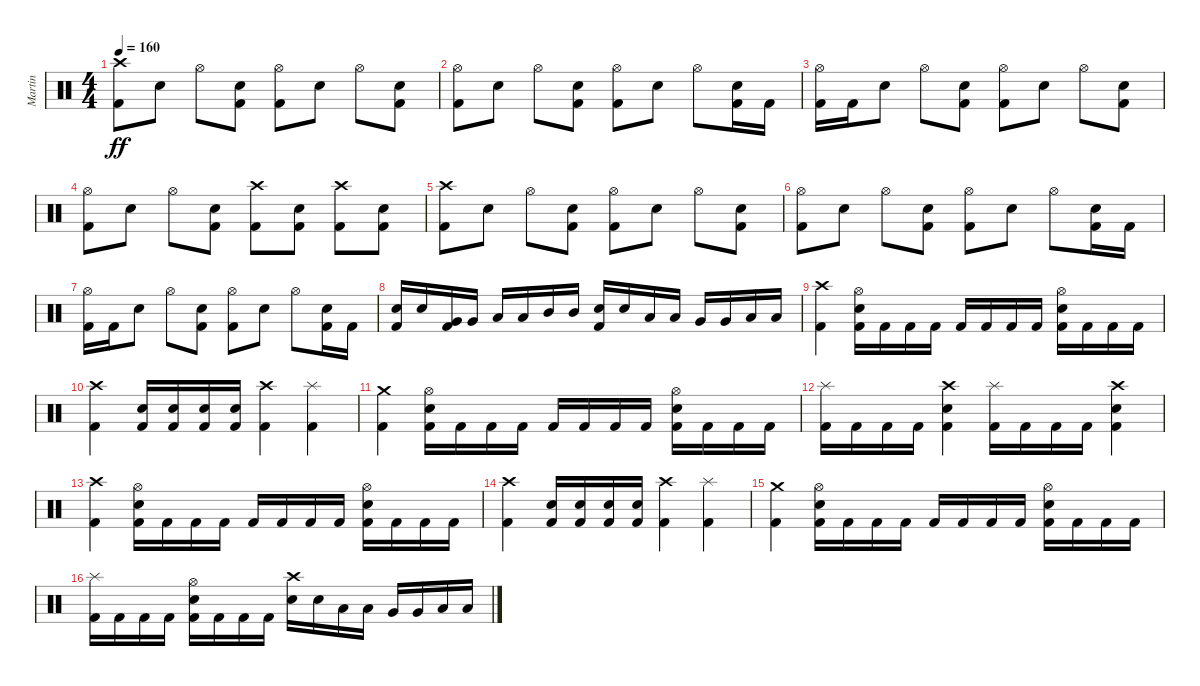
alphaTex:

\track ("Martin" "Martin") {instrument percussion}
\staff {score}
\articulation defaults
\ts (4 4)
\tempo 160
\clef neutral
\ks c
("Crash high (hit)" "Kick (hit) 2").8{dy ff} "Electric Snare (hit)".8 "Hi-Hat (open)".8 ("Electric Snare (hit)" "Kick (hit) 2").8 ("Hi-Hat (open)" "Kick (hit) 2").8 "Electric Snare (hit)".8 "Hi-Hat (open)".8 ("Electric Snare (hit)" "Kick (hit) 2").8 |
("Hi-Hat (open)" "Kick (hit) 2").8 "Electric Snare (hit)".8 "Hi-Hat (open)".8 ("Electric Snare (hit)" "Kick (hit) 2").8 ("Hi-Hat (open)" "Kick (hit) 2").8 "Electric Snare (hit)".8 "Hi-Hat (open)".8 ("Electric Snare (hit)" "Kick (hit) 2").16 "Kick (hit) 2".16 |
("Hi-Hat (open)" "Kick (hit) 2").16 "Kick (hit) 2".16 "Electric Snare (hit)".8 "Hi-Hat (open)".8 ("Electric Snare (hit)" "Kick (hit) 2").8 ("Hi-Hat (open)" "Kick (hit) 2").8 "Electric Snare (hit)".8 "Hi-Hat (open)".8 ("Electric Snare (hit)" "Kick (hit) 2").8 |
("Hi-Hat (open)" "Kick (hit) 2").8 "Electric Snare (hit)".8 "Hi-Hat (open)".8 ("Electric Snare (hit)" "Kick (hit) 2").8 ("Crash high (hit)" "Kick (hit) 2").8 ("Electric Snare (hit)" "Kick (hit) 2").8 ("Crash high (hit)" "Kick (hit) 2").8 ("Electric Snare (hit)" "Kick (hit) 2").8 |
("Crash high (hit)" "Kick (hit) 2").8 "Electric Snare (hit)".8 "Hi-Hat (open)".8 ("Electric Snare (hit)" "Kick (hit) 2").8 ("Hi-Hat (open)" "Kick (hit) 2").8 "Electric Snare (hit)".8 "Hi-Hat (open)".8 ("Electric Snare (hit)" "Kick (hit) 2").8 |
("Hi-Hat (open)" "Kick (hit) 2").8 "Electric Snare (hit)".8 "Hi-Hat (open)".8 ("Electric Snare (hit)" "Kick (hit) 2").8 ("Hi-Hat (open)" "Kick (hit) 2").8 "Electric Snare (hit)".8 "Hi-Hat (open)".8 ("Electric Snare (hit)" "Kick (hit) 2").16 "Kick (hit) 2".16 |
("Hi-Hat (open)" "Kick (hit) 2").16 "Kick (hit) 2".16 "Electric Snare (hit)".8 "Hi-Hat (open)".8 ("Electric Snare (hit)" "Kick (hit) 2").8 ("Hi-Hat (open)" "Kick (hit) 2").8 "Electric Snare (hit)".8 "Hi-Hat (open)".8 ("Electric Snare (hit)" "Kick (hit) 2").16 "Kick (hit) 2".16 |
("Electric Snare (hit)" "Kick (hit) 2").16 "Electric Snare (hit)".16 ("Very Low Tom (hit)" "Kick (hit) 2").16 "Very Low Tom (hit)".16 "Low Tom (hit)".16 "Low Tom (hit)".16 "Mid Tom (hit)".16 "Mid Tom (hit)".16 ("Electric Snare (hit)" "Kick (hit) 2").16 "Electric Snare (hit)".16 "Low Tom (hit)".16 "Low Tom (hit)".16 "Very Low Tom (hit)".16 "Very Low Tom (hit)".16 "Low Floor Tom (hit)".16 "Low Floor Tom (hit)".16 |
("Crash high (hit)" "Kick (hit) 2").4 ("Hi-Hat (open)" "Electric Snare (hit)" "Kick (hit) 2").16 "Kick (hit) 2".16 "Kick (hit) 2".16 "Kick (hit) 2".16 "Kick (hit) 2".16 "Kick (hit) 2".16 "Kick (hit) 2".16 "Kick (hit) 2".16 ("Hi-Hat (open)" "Electric Snare (hit)" "Kick (hit) 2").16 "Kick (hit) 2".16 "Kick (hit) 2".16 "Kick (hit) 2".16 |
("Crash high (hit)" "Kick (hit) 2").4 ("Electric Snare (hit)" "Kick (hit) 2").16 ("Electric Snare (hit)" "Kick (hit) 2").16 ("Electric Snare (hit)" "Kick (hit) 2").16 ("Electric Snare (hit)" "Kick (hit) 2").16 ("Crash high (hit)" "Kick (hit) 2").4 ("Splash (hit)" "Kick (hit) 2").4 |
("Crash medium (hit)" "Kick (hit) 2").4 ("Hi-Hat (open)" "Electric Snare (hit)" "Kick (hit) 2").16 "Kick (hit) 2".16 "Kick (hit) 2".16 "Kick (hit) 2".16 "Kick (hit) 2".16 "Kick (hit) 2".16 "Kick (hit) 2".16 "Kick (hit) 2".16 ("Hi-Hat (open)" "Electric Snare (hit)" "Kick (hit) 2").16 "Kick (hit) 2".16 "Kick (hit) 2".16 "Kick (hit) 2".16 |
("Splash (hit)" "Kick (hit) 2").16 "Kick (hit) 2".16 "Kick (hit) 2".16 "Kick (hit) 2".16 ("Crash high (hit)" "Electric Snare (hit)" "Kick (hit) 2").4 ("Splash (hit)" "Kick (hit) 2").16 "Kick (hit) 2".16 "Kick (hit) 2".16 "Kick (hit) 2".16 ("Crash high (hit)" "Electric Snare (hit)" "Kick (hit) 2").4 |
("Crash high (hit)" "Kick (hit) 2").4 ("Hi-Hat (open)" "Electric Snare (hit)" "Kick (hit) 2").16 "Kick (hit) 2".16 "Kick (hit) 2".16 "Kick (hit) 2".16 "Kick (hit) 2".16 "Kick (hit) 2".16 "Kick (hit) 2".16 "Kick (hit) 2".16 ("Hi-Hat (open)" "Electric Snare (hit)" "Kick (hit) 2").16 "Kick (hit) 2".16 "Kick (hit) 2".16 "Kick (hit) 2".16 |
("Crash high (hit)" "Kick (hit) 2").4 ("Electric Snare (hit)" "Kick (hit) 2").16 ("Electric Snare (hit)" "Kick (hit) 2").16 ("Electric Snare (hit)" "Kick (hit) 2").16 ("Electric Snare (hit)" "Kick (hit) 2").16 ("Crash high (hit)" "Kick (hit) 2").4 ("Splash (hit)" "Kick (hit) 2").4 |
("Crash medium (hit)" "Kick (hit) 2").4 ("Hi-Hat (open)" "Electric Snare (hit)" "Kick (hit) 2").16 "Kick (hit) 2".16 "Kick (hit) 2".16 "Kick (hit) 2".16 "Kick (hit) 2".16 "Kick (hit) 2".16 "Kick (hit) 2".16 "Kick (hit) 2".16 ("Hi-Hat (open)" "Electric Snare (hit)" "Kick (hit) 2").16 "Kick (hit) 2".16 "Kick (hit) 2".16 "Kick (hit) 2".16 |
("Splash (hit)" "Kick (hit) 2").16 "Kick (hit) 2".16 "Kick (hit) 2".16 "Kick (hit) 2".16 ("Hi-Hat (open)" "Electric Snare (hit)" "Kick (hit) 2").16 "Kick (hit) 2".16 "Kick (hit) 2".16 "Kick (hit) 2".16 ("Crash high (hit)" "Electric Snare (hit)").16 "Electric Snare (hit)".16 "Low Tom (hit)".16 "Low Tom (hit)".16 "Very Low Tom (hit)".16 "Very Low Tom (hit)".16 "Low Floor Tom (hit)".16 "Low Floor Tom (hit)".16
